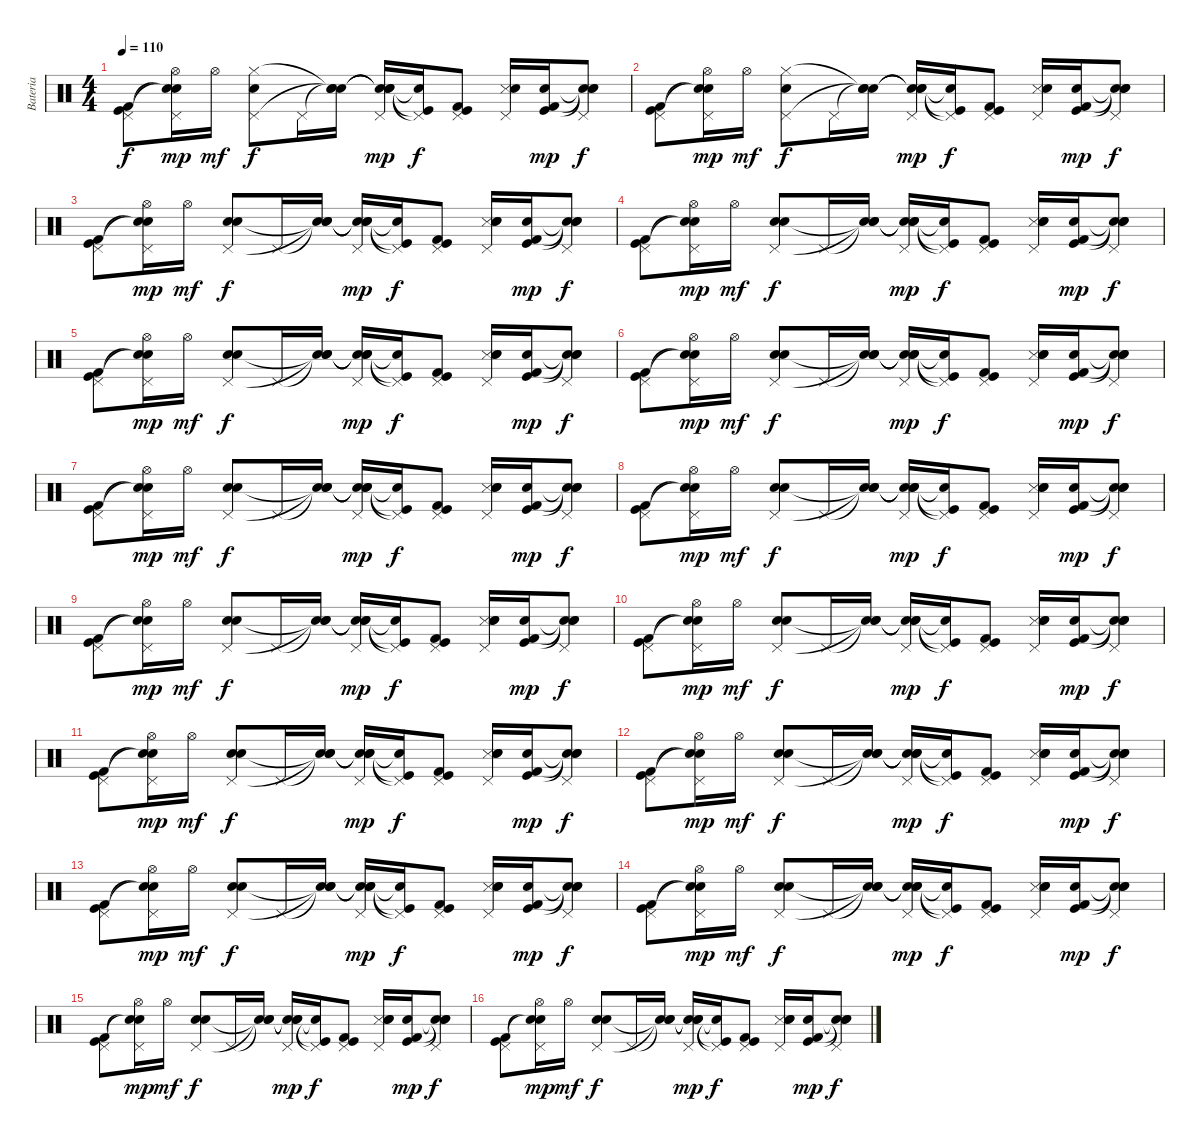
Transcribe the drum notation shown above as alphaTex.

\track ("Bateria" "Bateria") {instrument percussion}
\staff {score}
\articulation defaults
\ts (4 4)
\tempo 110
\clef neutral
\ks c
("Kick (hit)" "Kick (hit) 2" "Pedal Hi-Hat (hit)").8{dy f} ("Snare (hit)"{t} "Snare (hit)"{t} "Hi-Hat (open)" "Pedal Hi-Hat (hit)").16{dy mp} "Hi-Hat (open)".16{dy mf} ("Snare (hit) 2" "Hi-Hat (closed)" "Pedal Hi-Hat (hit)").8{dy f} "Pedal Hi-Hat (hit)".16 ("Snare (hit)"{t} "Snare (hit)"{t} "Snare (hit)"{t}).16 ("Snare (hit)"{t} "Snare (hit)"{t} "Snare (hit)"{t} "Pedal Hi-Hat (hit)").16{dy mp} ("Snare (hit) 2"{t} "Pedal Hi-Hat (hit)"{t} "Kick (hit)"{t}).16{dy f} ("Kick (hit) 2" "Kick (hit)" "Pedal Hi-Hat (hit)").8 ("Snare (side stick) 3" "Snare (hit) 2" "Pedal Hi-Hat (hit)").16 ("Kick (hit) 2" "Snare (hit) 2" "Kick (hit)").16{dy mp} ("Snare (hit)"{t} "Snare (hit)"{t} "Snare (hit)"{t} "Pedal Hi-Hat (hit)").8{dy f} |
("Kick (hit)" "Kick (hit) 2" "Pedal Hi-Hat (hit)").8 ("Snare (hit)"{t} "Snare (hit)"{t} "Hi-Hat (open)" "Pedal Hi-Hat (hit)").16{dy mp} "Hi-Hat (open)".16{dy mf} ("Snare (hit) 2" "Hi-Hat (closed)" "Pedal Hi-Hat (hit)").8{dy f} "Pedal Hi-Hat (hit)".16 ("Snare (hit)"{t} "Snare (hit)"{t} "Snare (hit)"{t}).16 ("Snare (hit)"{t} "Snare (hit)"{t} "Snare (hit)"{t} "Pedal Hi-Hat (hit)").16{dy mp} ("Snare (hit) 2"{t} "Pedal Hi-Hat (hit)"{t} "Kick (hit)"{t}).16{dy f} ("Kick (hit) 2" "Kick (hit)" "Pedal Hi-Hat (hit)").8 ("Snare (side stick) 3" "Snare (hit) 2" "Pedal Hi-Hat (hit)").16 ("Kick (hit) 2" "Snare (hit) 2" "Kick (hit)").16{dy mp} ("Snare (hit)"{t} "Snare (hit)"{t} "Snare (hit)"{t} "Pedal Hi-Hat (hit)").8{dy f} |
("Kick (hit)" "Kick (hit) 2" "Pedal Hi-Hat (hit)").8 ("Snare (hit)"{t} "Snare (hit)"{t} "Hi-Hat (open)" "Pedal Hi-Hat (hit)").16{dy mp} "Hi-Hat (open)".16{dy mf} ("Snare (hit) 2" "Electric Snare (hit)" "Pedal Hi-Hat (hit)").8{dy f} "Pedal Hi-Hat (hit)".16 ("Snare (hit)"{t} "Snare (hit)"{t} "Snare (hit)"{t}).16 ("Snare (hit)"{t} "Snare (hit)"{t} "Snare (hit)"{t} "Pedal Hi-Hat (hit)").16{dy mp} ("Snare (hit) 2"{t} "Pedal Hi-Hat (hit)"{t} "Kick (hit)"{t}).16{dy f} ("Kick (hit) 2" "Kick (hit)" "Pedal Hi-Hat (hit)").8 ("Snare (side stick) 3" "Electric Snare (hit)" "Snare (hit) 2" "Pedal Hi-Hat (hit)").16 ("Kick (hit) 2" "Snare (hit) 2" "Kick (hit)").16{dy mp} ("Snare (hit)"{t} "Snare (hit)"{t} "Snare (hit)"{t} "Pedal Hi-Hat (hit)").8{dy f} |
("Kick (hit)" "Kick (hit) 2" "Pedal Hi-Hat (hit)").8 ("Snare (hit)"{t} "Snare (hit)"{t} "Hi-Hat (open)" "Pedal Hi-Hat (hit)").16{dy mp} "Hi-Hat (open)".16{dy mf} ("Snare (hit) 2" "Electric Snare (hit)" "Pedal Hi-Hat (hit)").8{dy f} "Pedal Hi-Hat (hit)".16 ("Snare (hit)"{t} "Snare (hit)"{t} "Snare (hit)"{t}).16 ("Snare (hit)"{t} "Snare (hit)"{t} "Snare (hit)"{t} "Pedal Hi-Hat (hit)").16{dy mp} ("Snare (hit) 2"{t} "Pedal Hi-Hat (hit)"{t} "Kick (hit)"{t}).16{dy f} ("Kick (hit) 2" "Kick (hit)" "Pedal Hi-Hat (hit)").8 ("Snare (side stick) 3" "Snare (hit) 2" "Electric Snare (hit)" "Pedal Hi-Hat (hit)").16 ("Kick (hit) 2" "Snare (hit) 2" "Kick (hit)").16{dy mp} ("Snare (hit)"{t} "Snare (hit)"{t} "Snare (hit)"{t} "Pedal Hi-Hat (hit)").8{dy f} |
("Kick (hit)" "Kick (hit) 2" "Pedal Hi-Hat (hit)").8 ("Snare (hit)"{t} "Snare (hit)"{t} "Hi-Hat (open)" "Pedal Hi-Hat (hit)").16{dy mp} "Hi-Hat (open)".16{dy mf} ("Snare (hit) 2" "Electric Snare (hit)" "Pedal Hi-Hat (hit)").8{dy f} "Pedal Hi-Hat (hit)".16 ("Snare (hit)"{t} "Snare (hit)"{t} "Snare (hit)"{t}).16 ("Snare (hit)"{t} "Snare (hit)"{t} "Snare (hit)"{t} "Pedal Hi-Hat (hit)").16{dy mp} ("Snare (hit) 2"{t} "Pedal Hi-Hat (hit)"{t} "Kick (hit)"{t}).16{dy f} ("Kick (hit) 2" "Kick (hit)" "Pedal Hi-Hat (hit)").8 ("Snare (side stick) 3" "Electric Snare (hit)" "Snare (hit) 2" "Pedal Hi-Hat (hit)").16 ("Kick (hit) 2" "Snare (hit) 2" "Kick (hit)").16{dy mp} ("Snare (hit)"{t} "Snare (hit)"{t} "Snare (hit)"{t} "Pedal Hi-Hat (hit)").8{dy f} |
("Kick (hit)" "Kick (hit) 2" "Pedal Hi-Hat (hit)").8 ("Snare (hit)"{t} "Snare (hit)"{t} "Hi-Hat (open)" "Pedal Hi-Hat (hit)").16{dy mp} "Hi-Hat (open)".16{dy mf} ("Snare (hit) 2" "Electric Snare (hit)" "Pedal Hi-Hat (hit)").8{dy f} "Pedal Hi-Hat (hit)".16 ("Snare (hit)"{t} "Snare (hit)"{t} "Snare (hit)"{t}).16 ("Snare (hit)"{t} "Snare (hit)"{t} "Snare (hit)"{t} "Pedal Hi-Hat (hit)").16{dy mp} ("Snare (hit) 2"{t} "Pedal Hi-Hat (hit)"{t} "Kick (hit)"{t}).16{dy f} ("Kick (hit) 2" "Kick (hit)" "Pedal Hi-Hat (hit)").8 ("Snare (side stick) 3" "Electric Snare (hit)" "Snare (hit) 2" "Pedal Hi-Hat (hit)").16 ("Kick (hit) 2" "Snare (hit) 2" "Kick (hit)").16{dy mp} ("Snare (hit)"{t} "Snare (hit)"{t} "Snare (hit)"{t} "Pedal Hi-Hat (hit)").8{dy f} |
("Kick (hit)" "Kick (hit) 2" "Pedal Hi-Hat (hit)").8 ("Snare (hit)"{t} "Snare (hit)"{t} "Hi-Hat (open)" "Pedal Hi-Hat (hit)").16{dy mp} "Hi-Hat (open)".16{dy mf} ("Snare (hit) 2" "Electric Snare (hit)" "Pedal Hi-Hat (hit)").8{dy f} "Pedal Hi-Hat (hit)".16 ("Snare (hit)"{t} "Snare (hit)"{t} "Snare (hit)"{t}).16 ("Snare (hit)"{t} "Snare (hit)"{t} "Snare (hit)"{t} "Pedal Hi-Hat (hit)").16{dy mp} ("Snare (hit) 2"{t} "Pedal Hi-Hat (hit)"{t} "Kick (hit)"{t}).16{dy f} ("Kick (hit) 2" "Kick (hit)" "Pedal Hi-Hat (hit)").8 ("Snare (side stick) 3" "Electric Snare (hit)" "Snare (hit) 2" "Pedal Hi-Hat (hit)").16 ("Kick (hit) 2" "Snare (hit) 2" "Kick (hit)").16{dy mp} ("Snare (hit)"{t} "Snare (hit)"{t} "Snare (hit)"{t} "Pedal Hi-Hat (hit)").8{dy f} |
("Kick (hit)" "Kick (hit) 2" "Pedal Hi-Hat (hit)").8 ("Snare (hit)"{t} "Snare (hit)"{t} "Hi-Hat (open)" "Pedal Hi-Hat (hit)").16{dy mp} "Hi-Hat (open)".16{dy mf} ("Snare (hit) 2" "Electric Snare (hit)" "Pedal Hi-Hat (hit)").8{dy f} "Pedal Hi-Hat (hit)".16 ("Snare (hit)"{t} "Snare (hit)"{t} "Snare (hit)"{t}).16 ("Snare (hit)"{t} "Snare (hit)"{t} "Snare (hit)"{t} "Pedal Hi-Hat (hit)").16{dy mp} ("Snare (hit) 2"{t} "Pedal Hi-Hat (hit)"{t} "Kick (hit)"{t}).16{dy f} ("Kick (hit) 2" "Kick (hit)" "Pedal Hi-Hat (hit)").8 ("Snare (side stick) 3" "Electric Snare (hit)" "Snare (hit) 2" "Pedal Hi-Hat (hit)").16 ("Kick (hit) 2" "Snare (hit) 2" "Kick (hit)").16{dy mp} ("Snare (hit)"{t} "Snare (hit)"{t} "Snare (hit)"{t} "Pedal Hi-Hat (hit)").8{dy f} |
("Kick (hit)" "Kick (hit) 2" "Pedal Hi-Hat (hit)").8 ("Snare (hit)"{t} "Snare (hit)"{t} "Hi-Hat (open)" "Pedal Hi-Hat (hit)").16{dy mp} "Hi-Hat (open)".16{dy mf} ("Snare (hit) 2" "Electric Snare (hit)" "Pedal Hi-Hat (hit)").8{dy f} "Pedal Hi-Hat (hit)".16 ("Snare (hit)"{t} "Snare (hit)"{t} "Snare (hit)"{t}).16 ("Snare (hit)"{t} "Snare (hit)"{t} "Snare (hit)"{t} "Pedal Hi-Hat (hit)").16{dy mp} ("Snare (hit) 2"{t} "Pedal Hi-Hat (hit)"{t} "Kick (hit)"{t}).16{dy f} ("Kick (hit) 2" "Kick (hit)" "Pedal Hi-Hat (hit)").8 ("Snare (side stick) 3" "Electric Snare (hit)" "Snare (hit) 2" "Pedal Hi-Hat (hit)").16 ("Kick (hit) 2" "Snare (hit) 2" "Kick (hit)").16{dy mp} ("Snare (hit)"{t} "Snare (hit)"{t} "Snare (hit)"{t} "Pedal Hi-Hat (hit)").8{dy f} |
("Kick (hit)" "Kick (hit) 2" "Pedal Hi-Hat (hit)").8 ("Snare (hit)"{t} "Snare (hit)"{t} "Hi-Hat (open)" "Pedal Hi-Hat (hit)").16{dy mp} "Hi-Hat (open)".16{dy mf} ("Snare (hit) 2" "Electric Snare (hit)" "Pedal Hi-Hat (hit)").8{dy f} "Pedal Hi-Hat (hit)".16 ("Snare (hit)"{t} "Snare (hit)"{t} "Snare (hit)"{t}).16 ("Snare (hit)"{t} "Snare (hit)"{t} "Snare (hit)"{t} "Pedal Hi-Hat (hit)").16{dy mp} ("Snare (hit) 2"{t} "Pedal Hi-Hat (hit)"{t} "Kick (hit)"{t}).16{dy f} ("Kick (hit) 2" "Kick (hit)" "Pedal Hi-Hat (hit)").8 ("Snare (side stick) 3" "Electric Snare (hit)" "Snare (hit) 2" "Pedal Hi-Hat (hit)").16 ("Kick (hit) 2" "Snare (hit) 2" "Kick (hit)").16{dy mp} ("Snare (hit)"{t} "Snare (hit)"{t} "Snare (hit)"{t} "Pedal Hi-Hat (hit)").8{dy f} |
("Kick (hit)" "Kick (hit) 2" "Pedal Hi-Hat (hit)").8 ("Snare (hit)"{t} "Snare (hit)"{t} "Hi-Hat (open)" "Pedal Hi-Hat (hit)").16{dy mp} "Hi-Hat (open)".16{dy mf} ("Snare (hit) 2" "Electric Snare (hit)" "Pedal Hi-Hat (hit)").8{dy f} "Pedal Hi-Hat (hit)".16 ("Snare (hit)"{t} "Snare (hit)"{t} "Snare (hit)"{t}).16 ("Snare (hit)"{t} "Snare (hit)"{t} "Snare (hit)"{t} "Pedal Hi-Hat (hit)").16{dy mp} ("Snare (hit) 2"{t} "Pedal Hi-Hat (hit)"{t} "Kick (hit)"{t}).16{dy f} ("Kick (hit) 2" "Kick (hit)" "Pedal Hi-Hat (hit)").8 ("Snare (side stick) 3" "Electric Snare (hit)" "Snare (hit) 2" "Pedal Hi-Hat (hit)").16 ("Kick (hit) 2" "Snare (hit) 2" "Kick (hit)").16{dy mp} ("Snare (hit)"{t} "Snare (hit)"{t} "Snare (hit)"{t} "Pedal Hi-Hat (hit)").8{dy f} |
("Kick (hit)" "Kick (hit) 2" "Pedal Hi-Hat (hit)").8 ("Snare (hit)"{t} "Snare (hit)"{t} "Hi-Hat (open)" "Pedal Hi-Hat (hit)").16{dy mp} "Hi-Hat (open)".16{dy mf} ("Snare (hit) 2" "Electric Snare (hit)" "Pedal Hi-Hat (hit)").8{dy f} "Pedal Hi-Hat (hit)".16 ("Snare (hit)"{t} "Snare (hit)"{t} "Snare (hit)"{t}).16 ("Snare (hit)"{t} "Snare (hit)"{t} "Snare (hit)"{t} "Pedal Hi-Hat (hit)").16{dy mp} ("Snare (hit) 2"{t} "Pedal Hi-Hat (hit)"{t} "Kick (hit)"{t}).16{dy f} ("Kick (hit) 2" "Kick (hit)" "Pedal Hi-Hat (hit)").8 ("Snare (side stick) 3" "Electric Snare (hit)" "Snare (hit) 2" "Pedal Hi-Hat (hit)").16 ("Kick (hit) 2" "Snare (hit) 2" "Kick (hit)").16{dy mp} ("Snare (hit)"{t} "Snare (hit)"{t} "Snare (hit)"{t} "Pedal Hi-Hat (hit)").8{dy f} |
("Kick (hit)" "Kick (hit) 2" "Pedal Hi-Hat (hit)").8 ("Snare (hit)"{t} "Snare (hit)"{t} "Hi-Hat (open)" "Pedal Hi-Hat (hit)").16{dy mp} "Hi-Hat (open)".16{dy mf} ("Snare (hit) 2" "Electric Snare (hit)" "Pedal Hi-Hat (hit)").8{dy f} "Pedal Hi-Hat (hit)".16 ("Snare (hit)"{t} "Snare (hit)"{t} "Snare (hit)"{t}).16 ("Snare (hit)"{t} "Snare (hit)"{t} "Snare (hit)"{t} "Pedal Hi-Hat (hit)").16{dy mp} ("Snare (hit) 2"{t} "Pedal Hi-Hat (hit)"{t} "Kick (hit)"{t}).16{dy f} ("Kick (hit) 2" "Kick (hit)" "Pedal Hi-Hat (hit)").8 ("Snare (side stick) 3" "Electric Snare (hit)" "Snare (hit) 2" "Pedal Hi-Hat (hit)").16 ("Kick (hit) 2" "Snare (hit) 2" "Kick (hit)").16{dy mp} ("Snare (hit)"{t} "Snare (hit)"{t} "Snare (hit)"{t} "Pedal Hi-Hat (hit)").8{dy f} |
("Kick (hit)" "Kick (hit) 2" "Pedal Hi-Hat (hit)").8 ("Snare (hit)"{t} "Snare (hit)"{t} "Hi-Hat (open)" "Pedal Hi-Hat (hit)").16{dy mp} "Hi-Hat (open)".16{dy mf} ("Snare (hit) 2" "Electric Snare (hit)" "Pedal Hi-Hat (hit)").8{dy f} "Pedal Hi-Hat (hit)".16 ("Snare (hit)"{t} "Snare (hit)"{t} "Snare (hit)"{t}).16 ("Snare (hit)"{t} "Snare (hit)"{t} "Snare (hit)"{t} "Pedal Hi-Hat (hit)").16{dy mp} ("Snare (hit) 2"{t} "Pedal Hi-Hat (hit)"{t} "Kick (hit)"{t}).16{dy f} ("Kick (hit) 2" "Kick (hit)" "Pedal Hi-Hat (hit)").8 ("Snare (side stick) 3" "Electric Snare (hit)" "Snare (hit) 2" "Pedal Hi-Hat (hit)").16 ("Kick (hit) 2" "Snare (hit) 2" "Kick (hit)").16{dy mp} ("Snare (hit)"{t} "Snare (hit)"{t} "Snare (hit)"{t} "Pedal Hi-Hat (hit)").8{dy f} |
("Kick (hit)" "Kick (hit) 2" "Pedal Hi-Hat (hit)").8 ("Snare (hit)"{t} "Snare (hit)"{t} "Hi-Hat (open)" "Pedal Hi-Hat (hit)").16{dy mp} "Hi-Hat (open)".16{dy mf} ("Snare (hit) 2" "Electric Snare (hit)" "Pedal Hi-Hat (hit)").8{dy f} "Pedal Hi-Hat (hit)".16 ("Snare (hit)"{t} "Snare (hit)"{t} "Snare (hit)"{t}).16 ("Snare (hit)"{t} "Snare (hit)"{t} "Snare (hit)"{t} "Pedal Hi-Hat (hit)").16{dy mp} ("Snare (hit) 2"{t} "Pedal Hi-Hat (hit)"{t} "Kick (hit)"{t}).16{dy f} ("Kick (hit) 2" "Kick (hit)" "Pedal Hi-Hat (hit)").8 ("Snare (side stick) 3" "Electric Snare (hit)" "Snare (hit) 2" "Pedal Hi-Hat (hit)").16 ("Kick (hit) 2" "Snare (hit) 2" "Kick (hit)").16{dy mp} ("Snare (hit)"{t} "Snare (hit)"{t} "Snare (hit)"{t} "Pedal Hi-Hat (hit)").8{dy f} |
("Kick (hit)" "Kick (hit) 2" "Pedal Hi-Hat (hit)").8 ("Snare (hit)"{t} "Snare (hit)"{t} "Hi-Hat (open)" "Pedal Hi-Hat (hit)").16{dy mp} "Hi-Hat (open)".16{dy mf} ("Snare (hit) 2" "Electric Snare (hit)" "Pedal Hi-Hat (hit)").8{dy f} "Pedal Hi-Hat (hit)".16 ("Snare (hit)"{t} "Snare (hit)"{t} "Snare (hit)"{t}).16 ("Snare (hit)"{t} "Snare (hit)"{t} "Snare (hit)"{t} "Pedal Hi-Hat (hit)").16{dy mp} ("Snare (hit) 2"{t} "Pedal Hi-Hat (hit)"{t} "Kick (hit)"{t}).16{dy f} ("Kick (hit) 2" "Kick (hit)" "Pedal Hi-Hat (hit)").8 ("Snare (side stick) 3" "Electric Snare (hit)" "Snare (hit) 2" "Pedal Hi-Hat (hit)").16 ("Kick (hit) 2" "Snare (hit) 2" "Kick (hit)").16{dy mp} ("Snare (hit)"{t} "Snare (hit)"{t} "Snare (hit)"{t} "Pedal Hi-Hat (hit)").8{dy f}
